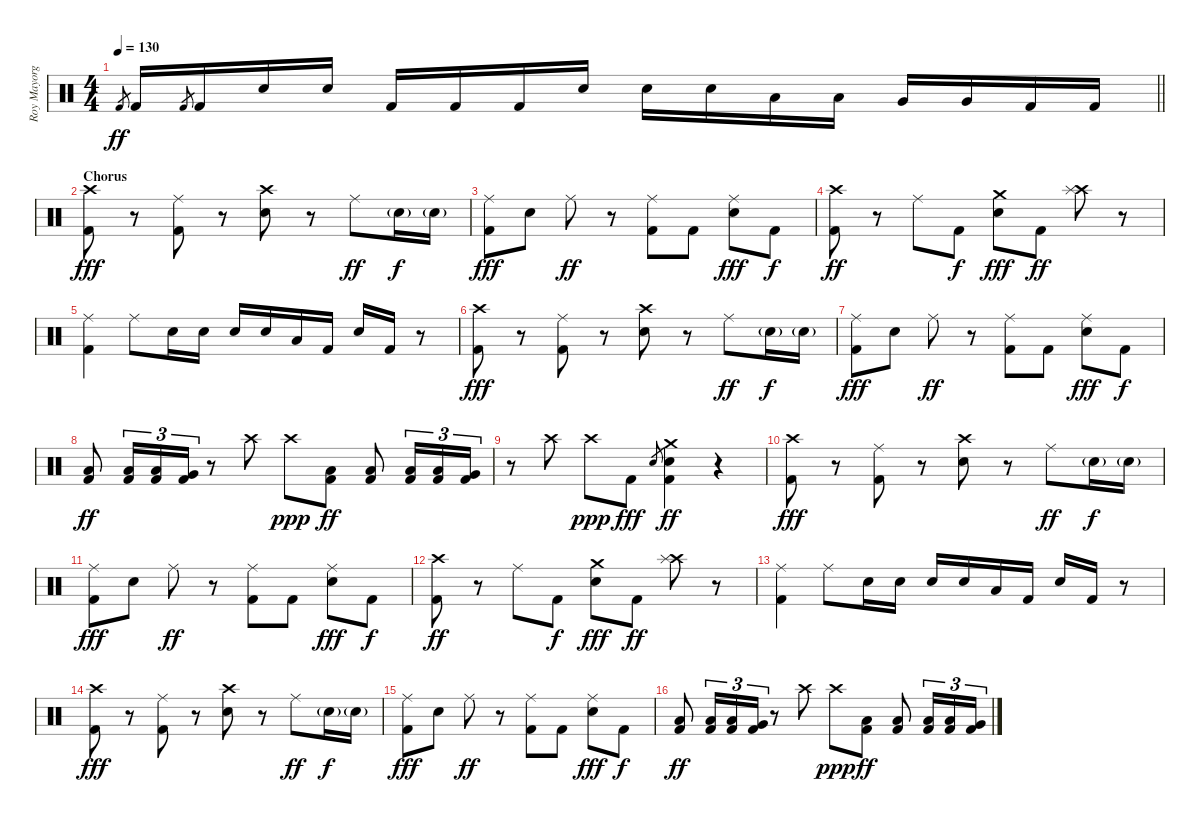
\track ("Roy Mayorga (Drums)" "Roy Mayorg") {instrument percussion}
\staff {score}
\articulation defaults
\ts (4 4)
\tempo 130
\clef neutral
\barLineRight lightlight
\ks c "Kick (hit) 2".8{gr dy ff} "Kick (hit) 2".16 "Kick (hit) 2".8{gr} "Kick (hit) 2".16 "Electric Snare (hit)".16 "Electric Snare (hit)".16 "Kick (hit) 2".16 "Kick (hit) 2".16 "Kick (hit) 2".16 "Electric Snare (hit)".16 "Electric Snare (hit)".16 "Electric Snare (hit)".16 "Low Tom (hit)".16 "Low Tom (hit)".16 "Very Low Tom (hit)".16 "Very Low Tom (hit)".16 "Kick (hit) 2".16 "Kick (hit) 2".16
|
\section ("" "Chorus")
("Crash high (hit)" "Kick (hit) 2").8{dy fff} r.8 ("Ride (middle)" "Kick (hit) 2").8 r.8 ("Crash high (hit)" "Electric Snare (hit)").8 r.8 "Ride (middle)".8{dy ff} "Electric Snare (hit)"{g}.16{dy f} "Electric Snare (hit)"{g}.16 |
("Ride (middle)" "Kick (hit) 2").8{dy fff} "Electric Snare (hit)".8 "Ride (middle)".8{dy ff} r.8 ("Ride (middle)" "Kick (hit) 2").8 "Kick (hit) 2".8 ("Ride (middle)" "Electric Snare (hit)").8{dy fff} "Kick (hit) 2".8{dy f} |
("Crash high (hit)" "Kick (hit) 2").8{dy ff} r.8 "Ride (middle)".8 "Kick (hit) 2".8{dy f} ("Crash medium (hit)" "Electric Snare (hit)").8{dy fff} "Kick (hit) 2".8{dy ff} ("Crash high (hit)" "Splash (hit)").8 r.8 |
("Ride (middle)" "Kick (hit) 2").4 "Ride (middle)".8 "Electric Snare (hit)".16 "Electric Snare (hit)".16 "Electric Snare (hit)".16 "Electric Snare (hit)".16 "Low Tom (hit)".16 "Kick (hit) 2".16 "Electric Snare (hit)".16 "Kick (hit) 2".16 r.8 |
("Crash high (hit)" "Kick (hit) 2").8{dy fff} r.8 ("Ride (middle)" "Kick (hit) 2").8 r.8 ("Crash high (hit)" "Electric Snare (hit)").8 r.8 "Ride (middle)".8{dy ff} "Electric Snare (hit)"{g}.16{dy f} "Electric Snare (hit)"{g}.16 |
("Ride (middle)" "Kick (hit) 2").8{dy fff} "Electric Snare (hit)".8 "Ride (middle)".8{dy ff} r.8 ("Ride (middle)" "Kick (hit) 2").8 "Kick (hit) 2".8 ("Ride (middle)" "Electric Snare (hit)").8{dy fff} "Kick (hit) 2".8{dy f} |
("Low Tom (hit)" "Kick (hit) 2").8{dy ff} ("Low Tom (hit)" "Kick (hit) 2").16{tu (3 2)} ("Low Tom (hit)" "Kick (hit) 2").16{tu (3 2)} ("Very Low Tom (hit)" "Kick (hit) 2").16{tu (3 2)} r.8 "Crash high (hit)".8 "Crash high (hit)".8{dy ppp} ("Low Tom (hit)" "Kick (hit) 2").8{dy ff} ("Low Tom (hit)" "Kick (hit) 2").8 ("Low Tom (hit)" "Kick (hit) 2").16{tu (3 2)} ("Low Tom (hit)" "Kick (hit) 2").16{tu (3 2)} ("Very Low Tom (hit)" "Kick (hit) 2").16{tu (3 2)} |
r.8 "Crash high (hit)".8 "Crash high (hit)".8{dy ppp} "Kick (hit) 2".8{dy fff} "Electric Snare (hit)".8{gr} ("Crash medium (hit)" "Electric Snare (hit)" "Kick (hit) 2").4{dy ff} r.4 |
("Crash high (hit)" "Kick (hit) 2").8{dy fff} r.8 ("Ride (middle)" "Kick (hit) 2").8 r.8 ("Crash high (hit)" "Electric Snare (hit)").8 r.8 "Ride (middle)".8{dy ff} "Electric Snare (hit)"{g}.16{dy f} "Electric Snare (hit)"{g}.16 |
("Ride (middle)" "Kick (hit) 2").8{dy fff} "Electric Snare (hit)".8 "Ride (middle)".8{dy ff} r.8 ("Ride (middle)" "Kick (hit) 2").8 "Kick (hit) 2".8 ("Ride (middle)" "Electric Snare (hit)").8{dy fff} "Kick (hit) 2".8{dy f} |
("Crash high (hit)" "Kick (hit) 2").8{dy ff} r.8 "Ride (middle)".8 "Kick (hit) 2".8{dy f} ("Crash medium (hit)" "Electric Snare (hit)").8{dy fff} "Kick (hit) 2".8{dy ff} ("Crash high (hit)" "Splash (hit)").8 r.8 |
("Ride (middle)" "Kick (hit) 2").4 "Ride (middle)".8 "Electric Snare (hit)".16 "Electric Snare (hit)".16 "Electric Snare (hit)".16 "Electric Snare (hit)".16 "Low Tom (hit)".16 "Kick (hit) 2".16 "Electric Snare (hit)".16 "Kick (hit) 2".16 r.8 |
("Crash high (hit)" "Kick (hit) 2").8{dy fff} r.8 ("Ride (middle)" "Kick (hit) 2").8 r.8 ("Crash high (hit)" "Electric Snare (hit)").8 r.8 "Ride (middle)".8{dy ff} "Electric Snare (hit)"{g}.16{dy f} "Electric Snare (hit)"{g}.16 |
("Ride (middle)" "Kick (hit) 2").8{dy fff} "Electric Snare (hit)".8 "Ride (middle)".8{dy ff} r.8 ("Ride (middle)" "Kick (hit) 2").8 "Kick (hit) 2".8 ("Ride (middle)" "Electric Snare (hit)").8{dy fff} "Kick (hit) 2".8{dy f} |
("Low Tom (hit)" "Kick (hit) 2").8{dy ff} ("Low Tom (hit)" "Kick (hit) 2").16{tu (3 2)} ("Low Tom (hit)" "Kick (hit) 2").16{tu (3 2)} ("Very Low Tom (hit)" "Kick (hit) 2").16{tu (3 2)} r.8 "Crash high (hit)".8 "Crash high (hit)".8{dy ppp} ("Low Tom (hit)" "Kick (hit) 2").8{dy ff} ("Low Tom (hit)" "Kick (hit) 2").8 ("Low Tom (hit)" "Kick (hit) 2").16{tu (3 2)} ("Low Tom (hit)" "Kick (hit) 2").16{tu (3 2)} ("Very Low Tom (hit)" "Kick (hit) 2").16{tu (3 2)}
